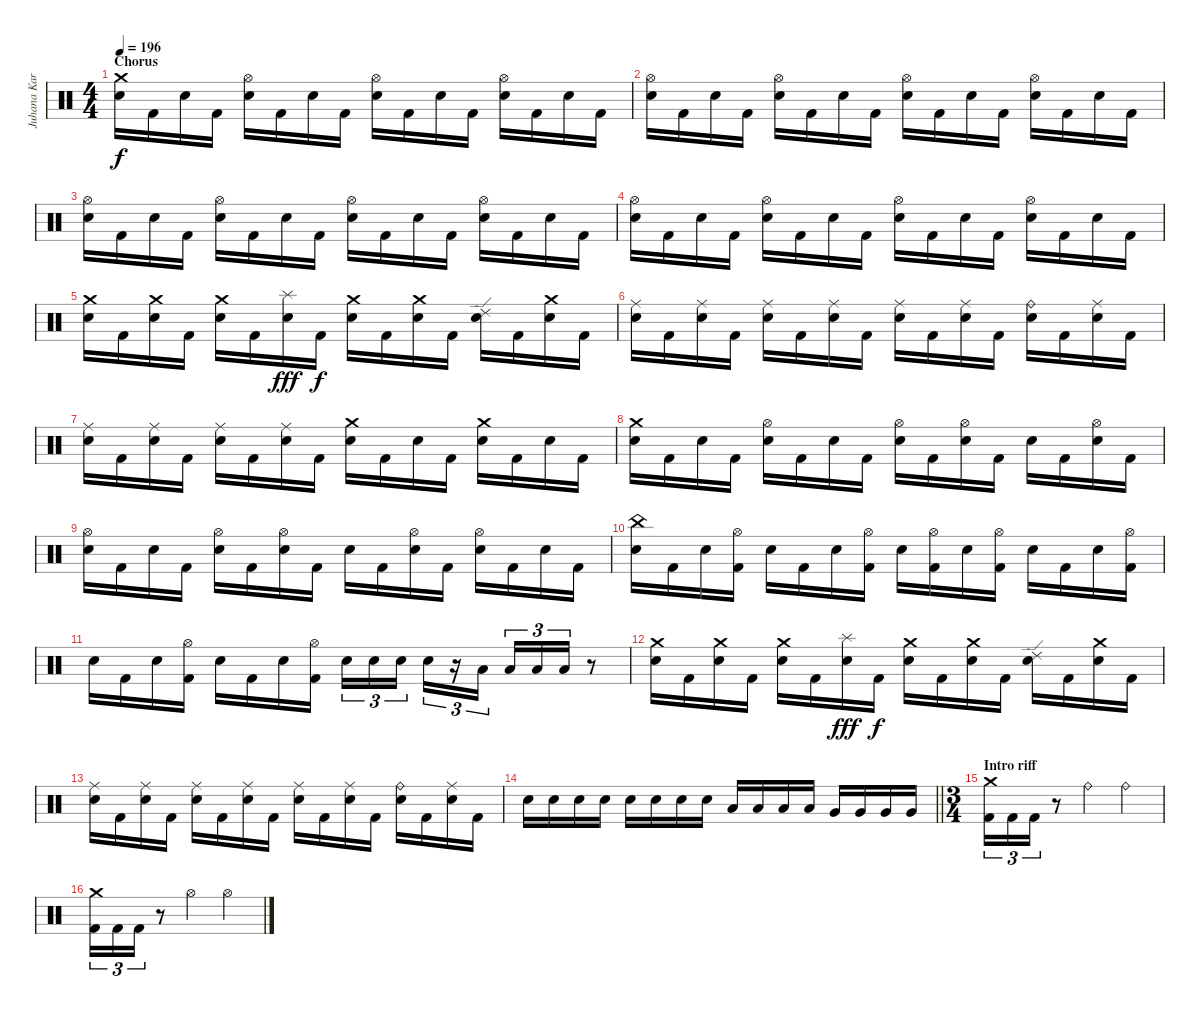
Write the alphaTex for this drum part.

\track ("Juhana Karlsson " "Juhana Kar") {instrument percussion}
\staff {score}
\articulation defaults
\ts (4 4)
\section ("" "Chorus")
\tempo 196
\clef neutral
\ks c
("Crash medium (hit)" "Electric Snare (hit)").16{dy f} "Kick (hit) 2".16 "Electric Snare (hit)".16 "Kick (hit) 2".16 ("Hi-Hat (open)" "Electric Snare (hit)").16 "Kick (hit) 2".16 "Electric Snare (hit)".16 "Kick (hit) 2".16 ("Hi-Hat (open)" "Electric Snare (hit)").16 "Kick (hit) 2".16 "Electric Snare (hit)".16 "Kick (hit) 2".16 ("Hi-Hat (open)" "Electric Snare (hit)").16 "Kick (hit) 2".16 "Electric Snare (hit)".16 "Kick (hit) 2".16 |
("Hi-Hat (open)" "Electric Snare (hit)").16 "Kick (hit) 2".16 "Electric Snare (hit)".16 "Kick (hit) 2".16 ("Hi-Hat (open)" "Electric Snare (hit)").16 "Kick (hit) 2".16 "Electric Snare (hit)".16 "Kick (hit) 2".16 ("Hi-Hat (open)" "Electric Snare (hit)").16 "Kick (hit) 2".16 "Electric Snare (hit)".16 "Kick (hit) 2".16 ("Hi-Hat (open)" "Electric Snare (hit)").16 "Kick (hit) 2".16 "Electric Snare (hit)".16 "Kick (hit) 2".16 |
("Hi-Hat (open)" "Electric Snare (hit)").16 "Kick (hit) 2".16 "Electric Snare (hit)".16 "Kick (hit) 2".16 ("Hi-Hat (open)" "Electric Snare (hit)").16 "Kick (hit) 2".16 "Electric Snare (hit)".16 "Kick (hit) 2".16 ("Hi-Hat (open)" "Electric Snare (hit)").16 "Kick (hit) 2".16 "Electric Snare (hit)".16 "Kick (hit) 2".16 ("Hi-Hat (open)" "Electric Snare (hit)").16 "Kick (hit) 2".16 "Electric Snare (hit)".16 "Kick (hit) 2".16 |
("Hi-Hat (open)" "Electric Snare (hit)").16 "Kick (hit) 2".16 "Electric Snare (hit)".16 "Kick (hit) 2".16 ("Hi-Hat (open)" "Electric Snare (hit)").16 "Kick (hit) 2".16 "Electric Snare (hit)".16 "Kick (hit) 2".16 ("Hi-Hat (open)" "Electric Snare (hit)").16 "Kick (hit) 2".16 "Electric Snare (hit)".16 "Kick (hit) 2".16 ("Hi-Hat (open)" "Electric Snare (hit)").16 "Kick (hit) 2".16 "Electric Snare (hit)".16 "Kick (hit) 2".16 |
("Crash medium (hit)" "Electric Snare (hit)").16 "Kick (hit) 2".16 ("Crash medium (hit)" "Electric Snare (hit)").16 "Kick (hit) 2".16 ("Crash medium (hit)" "Electric Snare (hit)").16 "Kick (hit) 2".16 ("Splash (hit)" "Electric Snare (hit)").16{dy fff} "Kick (hit) 2".16{dy f} ("Crash medium (hit)" "Electric Snare (hit)").16 "Kick (hit) 2".16 ("Crash medium (hit)" "Electric Snare (hit)").16 "Kick (hit) 2".16 ("Ride (edge) 2" "Electric Snare (hit)").16 "Kick (hit) 2".16 ("Crash medium (hit)" "Electric Snare (hit)").16 "Kick (hit) 2".16 |
("Ride (middle)" "Electric Snare (hit)").16 "Kick (hit) 2".16 ("Ride (middle)" "Electric Snare (hit)").16 "Kick (hit) 2".16 ("Ride (middle)" "Electric Snare (hit)").16 "Kick (hit) 2".16 ("Ride (middle)" "Electric Snare (hit)").16 "Kick (hit) 2".16 ("Ride (middle)" "Electric Snare (hit)").16 "Kick (hit) 2".16 ("Ride (middle)" "Electric Snare (hit)").16 "Kick (hit) 2".16 ("Ride (bell)" "Electric Snare (hit)").16 "Kick (hit) 2".16 ("Ride (middle)" "Electric Snare (hit)").16 "Kick (hit) 2".16 |
("Ride (middle)" "Electric Snare (hit)").16 "Kick (hit) 2".16 ("Ride (middle)" "Electric Snare (hit)").16 "Kick (hit) 2".16 ("Ride (middle)" "Electric Snare (hit)").16 "Kick (hit) 2".16 ("Ride (middle)" "Electric Snare (hit)").16 "Kick (hit) 2".16 ("Crash medium (hit)" "Electric Snare (hit)").16 "Kick (hit) 2".16 "Electric Snare (hit)".16 "Kick (hit) 2".16 ("Crash medium (hit)" "Electric Snare (hit)").16 "Kick (hit) 2".16 "Electric Snare (hit)".16 "Kick (hit) 2".16 |
("Crash medium (hit)" "Electric Snare (hit)").16 "Kick (hit) 2".16 "Electric Snare (hit)".16 "Kick (hit) 2".16 ("Hi-Hat (open)" "Electric Snare (hit)").16 "Kick (hit) 2".16 "Electric Snare (hit)".16 "Kick (hit) 2".16 ("Hi-Hat (open)" "Electric Snare (hit)").16 "Kick (hit) 2".16 ("Hi-Hat (open)" "Electric Snare (hit)").16 "Kick (hit) 2".16 "Electric Snare (hit)".16 "Kick (hit) 2".16 ("Hi-Hat (open)" "Electric Snare (hit)").16 "Kick (hit) 2".16 |
("Hi-Hat (open)" "Electric Snare (hit)").16 "Kick (hit) 2".16 "Electric Snare (hit)".16 "Kick (hit) 2".16 ("Hi-Hat (open)" "Electric Snare (hit)").16 "Kick (hit) 2".16 ("Hi-Hat (open)" "Electric Snare (hit)").16 "Kick (hit) 2".16 "Electric Snare (hit)".16 "Kick (hit) 2".16 ("Hi-Hat (open)" "Electric Snare (hit)").16 "Kick (hit) 2".16 ("Hi-Hat (open)" "Electric Snare (hit)").16 "Kick (hit) 2".16 "Electric Snare (hit)".16 "Kick (hit) 2".16 |
("China (hit)" "Electric Snare (hit)").16 "Kick (hit) 2".16 "Electric Snare (hit)".16 ("Hi-Hat (open)" "Kick (hit) 2").16 "Electric Snare (hit)".16 "Kick (hit) 2".16 "Electric Snare (hit)".16 ("Hi-Hat (open)" "Kick (hit) 2").16 "Electric Snare (hit)".16 ("Hi-Hat (open)" "Kick (hit) 2").16 "Electric Snare (hit)".16 ("Hi-Hat (open)" "Kick (hit) 2").16 "Electric Snare (hit)".16 "Kick (hit) 2".16 "Electric Snare (hit)".16 ("Hi-Hat (open)" "Kick (hit) 2").16 |
"Electric Snare (hit)".16 "Kick (hit) 2".16 "Electric Snare (hit)".16 ("Hi-Hat (open)" "Kick (hit) 2").16 "Electric Snare (hit)".16 "Kick (hit) 2".16 "Electric Snare (hit)".16 ("Hi-Hat (open)" "Kick (hit) 2").16 "Electric Snare (hit)".16{tu (3 2)} "Electric Snare (hit)".16{tu (3 2)} "Electric Snare (hit)".16{tu (3 2) beam splitsecondary} "Electric Snare (hit)".16{tu (3 2)} r.16{tu (3 2)} "Low Tom (hit)".16{tu (3 2)} "Low Tom (hit)".16{tu (3 2)} "Low Tom (hit)".16{tu (3 2)} "Low Tom (hit)".16{tu (3 2)} r.8 |
("Crash medium (hit)" "Electric Snare (hit)").16 "Kick (hit) 2".16 ("Crash medium (hit)" "Electric Snare (hit)").16 "Kick (hit) 2".16 ("Crash medium (hit)" "Electric Snare (hit)").16 "Kick (hit) 2".16 ("Splash (hit)" "Electric Snare (hit)").16{dy fff} "Kick (hit) 2".16{dy f} ("Crash medium (hit)" "Electric Snare (hit)").16 "Kick (hit) 2".16 ("Crash medium (hit)" "Electric Snare (hit)").16 "Kick (hit) 2".16 ("Ride (edge) 2" "Electric Snare (hit)").16 "Kick (hit) 2".16 ("Crash medium (hit)" "Electric Snare (hit)").16 "Kick (hit) 2".16 |
("Ride (middle)" "Electric Snare (hit)").16 "Kick (hit) 2".16 ("Ride (middle)" "Electric Snare (hit)").16 "Kick (hit) 2".16 ("Ride (middle)" "Electric Snare (hit)").16 "Kick (hit) 2".16 ("Ride (middle)" "Electric Snare (hit)").16 "Kick (hit) 2".16 ("Ride (middle)" "Electric Snare (hit)").16 "Kick (hit) 2".16 ("Ride (middle)" "Electric Snare (hit)").16 "Kick (hit) 2".16 ("Ride (bell)" "Electric Snare (hit)").16 "Kick (hit) 2".16 ("Ride (middle)" "Electric Snare (hit)").16 "Kick (hit) 2".16 |
\barLineRight lightlight "Electric Snare (hit)".16 "Electric Snare (hit)".16 "Electric Snare (hit)".16 "Electric Snare (hit)".16 "Electric Snare (hit)".16 "Electric Snare (hit)".16 "Electric Snare (hit)".16 "Electric Snare (hit)".16 "Low Tom (hit)".16 "Low Tom (hit)".16 "Low Tom (hit)".16 "Low Tom (hit)".16 "Very Low Tom (hit)".16 "Very Low Tom (hit)".16 "Very Low Tom (hit)".16 "Very Low Tom (hit)".16
|
\ts (3 4)
\section ("" "Intro riff")
("Crash medium (hit)" "Kick (hit) 2").16{tu (3 2)} "Kick (hit) 2".16{tu (3 2)} "Kick (hit) 2".16{tu (3 2)} r.8 "Ride (bell)".4 "Ride (bell)".4 |
("Crash medium (hit)" "Kick (hit) 2").16{tu (3 2)} "Kick (hit) 2".16{tu (3 2)} "Kick (hit) 2".16{tu (3 2)} r.8 "Hi-Hat (open)".4 "Hi-Hat (open)".4
